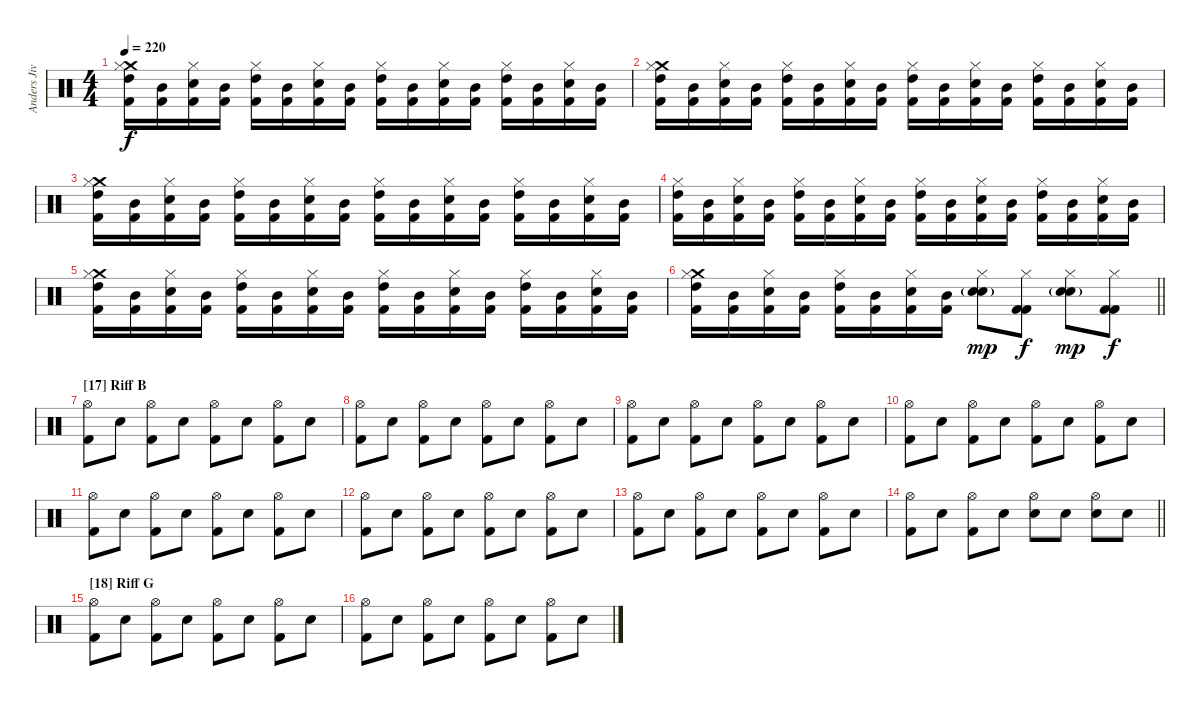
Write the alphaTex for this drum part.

\track ("Anders Jivarp" "Anders Jiv") {instrument percussion}
\staff {score}
\articulation defaults
\ts (4 4)
\tempo 220
\clef neutral
\ks c
("Crash medium (hit)" "Hi-Hat (closed)" "High Tom (hit)" "Kick (hit) 2").16{dy f} ("Mid Tom (hit)" "Kick (hit) 2").16 ("Hi-Hat (closed)" "Electric Snare (hit)" "Kick (hit) 2").16 ("Mid Tom (hit)" "Kick (hit) 2").16 ("Hi-Hat (closed)" "High Tom (hit)" "Kick (hit) 2").16 ("Mid Tom (hit)" "Kick (hit) 2").16 ("Hi-Hat (closed)" "Electric Snare (hit)" "Kick (hit) 2").16 ("Mid Tom (hit)" "Kick (hit) 2").16 ("Hi-Hat (closed)" "High Tom (hit)" "Kick (hit) 2").16 ("Mid Tom (hit)" "Kick (hit) 2").16 ("Hi-Hat (closed)" "Electric Snare (hit)" "Kick (hit) 2").16 ("Mid Tom (hit)" "Kick (hit) 2").16 ("Hi-Hat (closed)" "High Tom (hit)" "Kick (hit) 2").16 ("Mid Tom (hit)" "Kick (hit) 2").16 ("Hi-Hat (closed)" "Electric Snare (hit)" "Kick (hit) 2").16 ("Mid Tom (hit)" "Kick (hit) 2").16 |
("Crash medium (hit)" "Hi-Hat (closed)" "High Tom (hit)" "Kick (hit) 2").16 ("Mid Tom (hit)" "Kick (hit) 2").16 ("Hi-Hat (closed)" "Electric Snare (hit)" "Kick (hit) 2").16 ("Mid Tom (hit)" "Kick (hit) 2").16 ("Hi-Hat (closed)" "High Tom (hit)" "Kick (hit) 2").16 ("Mid Tom (hit)" "Kick (hit) 2").16 ("Hi-Hat (closed)" "Electric Snare (hit)" "Kick (hit) 2").16 ("Mid Tom (hit)" "Kick (hit) 2").16 ("Hi-Hat (closed)" "High Tom (hit)" "Kick (hit) 2").16 ("Mid Tom (hit)" "Kick (hit) 2").16 ("Hi-Hat (closed)" "Electric Snare (hit)" "Kick (hit) 2").16 ("Mid Tom (hit)" "Kick (hit) 2").16 ("Hi-Hat (closed)" "High Tom (hit)" "Kick (hit) 2").16 ("Mid Tom (hit)" "Kick (hit) 2").16 ("Hi-Hat (closed)" "Electric Snare (hit)" "Kick (hit) 2").16 ("Mid Tom (hit)" "Kick (hit) 2").16 |
("Crash medium (hit)" "Hi-Hat (closed)" "High Tom (hit)" "Kick (hit) 2").16 ("Mid Tom (hit)" "Kick (hit) 2").16 ("Hi-Hat (closed)" "Electric Snare (hit)" "Kick (hit) 2").16 ("Mid Tom (hit)" "Kick (hit) 2").16 ("Hi-Hat (closed)" "High Tom (hit)" "Kick (hit) 2").16 ("Mid Tom (hit)" "Kick (hit) 2").16 ("Hi-Hat (closed)" "Electric Snare (hit)" "Kick (hit) 2").16 ("Mid Tom (hit)" "Kick (hit) 2").16 ("Hi-Hat (closed)" "High Tom (hit)" "Kick (hit) 2").16 ("Mid Tom (hit)" "Kick (hit) 2").16 ("Hi-Hat (closed)" "Electric Snare (hit)" "Kick (hit) 2").16 ("Mid Tom (hit)" "Kick (hit) 2").16 ("Hi-Hat (closed)" "High Tom (hit)" "Kick (hit) 2").16 ("Mid Tom (hit)" "Kick (hit) 2").16 ("Hi-Hat (closed)" "Electric Snare (hit)" "Kick (hit) 2").16 ("Mid Tom (hit)" "Kick (hit) 2").16 |
("Hi-Hat (closed)" "High Tom (hit)" "Kick (hit) 2").16 ("Mid Tom (hit)" "Kick (hit) 2").16 ("Hi-Hat (closed)" "Electric Snare (hit)" "Kick (hit) 2").16 ("Mid Tom (hit)" "Kick (hit) 2").16 ("Hi-Hat (closed)" "High Tom (hit)" "Kick (hit) 2").16 ("Mid Tom (hit)" "Kick (hit) 2").16 ("Hi-Hat (closed)" "Electric Snare (hit)" "Kick (hit) 2").16 ("Mid Tom (hit)" "Kick (hit) 2").16 ("Hi-Hat (closed)" "High Tom (hit)" "Kick (hit) 2").16 ("Mid Tom (hit)" "Kick (hit) 2").16 ("Hi-Hat (closed)" "Electric Snare (hit)" "Kick (hit) 2").16 ("Mid Tom (hit)" "Kick (hit) 2").16 ("Hi-Hat (closed)" "High Tom (hit)" "Kick (hit) 2").16 ("Mid Tom (hit)" "Kick (hit) 2").16 ("Hi-Hat (closed)" "Electric Snare (hit)" "Kick (hit) 2").16 ("Mid Tom (hit)" "Kick (hit) 2").16 |
("Crash medium (hit)" "Hi-Hat (closed)" "High Tom (hit)" "Kick (hit) 2").16 ("Mid Tom (hit)" "Kick (hit) 2").16 ("Hi-Hat (closed)" "Electric Snare (hit)" "Kick (hit) 2").16 ("Mid Tom (hit)" "Kick (hit) 2").16 ("Hi-Hat (closed)" "High Tom (hit)" "Kick (hit) 2").16 ("Mid Tom (hit)" "Kick (hit) 2").16 ("Hi-Hat (closed)" "Electric Snare (hit)" "Kick (hit) 2").16 ("Mid Tom (hit)" "Kick (hit) 2").16 ("Hi-Hat (closed)" "High Tom (hit)" "Kick (hit) 2").16 ("Mid Tom (hit)" "Kick (hit) 2").16 ("Hi-Hat (closed)" "Electric Snare (hit)" "Kick (hit) 2").16 ("Mid Tom (hit)" "Kick (hit) 2").16 ("Hi-Hat (closed)" "High Tom (hit)" "Kick (hit) 2").16 ("Mid Tom (hit)" "Kick (hit) 2").16 ("Hi-Hat (closed)" "Electric Snare (hit)" "Kick (hit) 2").16 ("Mid Tom (hit)" "Kick (hit) 2").16 |
\barLineRight lightlight
("Crash medium (hit)" "Hi-Hat (closed)" "High Tom (hit)" "Kick (hit) 2").16 ("Mid Tom (hit)" "Kick (hit) 2").16 ("Hi-Hat (closed)" "Electric Snare (hit)" "Kick (hit) 2").16 ("Mid Tom (hit)" "Kick (hit) 2").16 ("Hi-Hat (closed)" "High Tom (hit)" "Kick (hit) 2").16 ("Mid Tom (hit)" "Kick (hit) 2").16 ("Hi-Hat (closed)" "Electric Snare (hit)" "Kick (hit) 2").16 ("Mid Tom (hit)" "Kick (hit) 2").16 ("Hi-Hat (closed)" "Electric Snare (hit)"{g} "Snare (hit) 2").8{dy mp} ("Hi-Hat (closed)" "Kick (hit) 2" "Kick (hit) 2").8{dy f} ("Hi-Hat (closed)" "Electric Snare (hit)"{g} "Snare (hit) 2").8{dy mp} ("Hi-Hat (closed)" "Kick (hit) 2" "Kick (hit) 2").8{dy f} |
\section ("" "[17] Riff B")
("Hi-Hat (open)" "Kick (hit) 2").8 "Snare (hit) 2".8 ("Hi-Hat (open)" "Kick (hit) 2").8 "Snare (hit) 2".8 ("Hi-Hat (open)" "Kick (hit) 2").8 "Snare (hit) 2".8 ("Hi-Hat (open)" "Kick (hit) 2").8 "Snare (hit) 2".8 |
("Hi-Hat (open)" "Kick (hit) 2").8 "Snare (hit) 2".8 ("Hi-Hat (open)" "Kick (hit) 2").8 "Snare (hit) 2".8 ("Hi-Hat (open)" "Kick (hit) 2").8 "Snare (hit) 2".8 ("Hi-Hat (open)" "Kick (hit) 2").8 "Snare (hit) 2".8 |
("Hi-Hat (open)" "Kick (hit) 2").8 "Snare (hit) 2".8 ("Hi-Hat (open)" "Kick (hit) 2").8 "Snare (hit) 2".8 ("Hi-Hat (open)" "Kick (hit) 2").8 "Snare (hit) 2".8 ("Hi-Hat (open)" "Kick (hit) 2").8 "Snare (hit) 2".8 |
("Hi-Hat (open)" "Kick (hit) 2").8 "Snare (hit) 2".8 ("Hi-Hat (open)" "Kick (hit) 2").8 "Snare (hit) 2".8 ("Hi-Hat (open)" "Kick (hit) 2").8 "Snare (hit) 2".8 ("Hi-Hat (open)" "Kick (hit) 2").8 "Snare (hit) 2".8 |
("Hi-Hat (open)" "Kick (hit) 2").8 "Snare (hit) 2".8 ("Hi-Hat (open)" "Kick (hit) 2").8 "Snare (hit) 2".8 ("Hi-Hat (open)" "Kick (hit) 2").8 "Snare (hit) 2".8 ("Hi-Hat (open)" "Kick (hit) 2").8 "Snare (hit) 2".8 |
("Hi-Hat (open)" "Kick (hit) 2").8 "Snare (hit) 2".8 ("Hi-Hat (open)" "Kick (hit) 2").8 "Snare (hit) 2".8 ("Hi-Hat (open)" "Kick (hit) 2").8 "Snare (hit) 2".8 ("Hi-Hat (open)" "Kick (hit) 2").8 "Snare (hit) 2".8 |
("Hi-Hat (open)" "Kick (hit) 2").8 "Snare (hit) 2".8 ("Hi-Hat (open)" "Kick (hit) 2").8 "Snare (hit) 2".8 ("Hi-Hat (open)" "Kick (hit) 2").8 "Snare (hit) 2".8 ("Hi-Hat (open)" "Kick (hit) 2").8 "Snare (hit) 2".8 |
\barLineRight lightlight
("Hi-Hat (open)" "Kick (hit) 2").8 "Snare (hit) 2".8 ("Hi-Hat (open)" "Kick (hit) 2").8 "Snare (hit) 2".8 ("Hi-Hat (open)" "Electric Snare (hit)").8 "Electric Snare (hit)".8 ("Hi-Hat (open)" "Electric Snare (hit)").8 "Electric Snare (hit)".8 |
\section ("" "[18] Riff G")
("Hi-Hat (open)" "Kick (hit) 2").8 "Snare (hit) 2".8 ("Hi-Hat (open)" "Kick (hit) 2").8 "Snare (hit) 2".8 ("Hi-Hat (open)" "Kick (hit) 2").8 "Snare (hit) 2".8 ("Hi-Hat (open)" "Kick (hit) 2").8 "Snare (hit) 2".8 |
("Hi-Hat (open)" "Kick (hit) 2").8 "Snare (hit) 2".8 ("Hi-Hat (open)" "Kick (hit) 2").8 "Snare (hit) 2".8 ("Hi-Hat (open)" "Kick (hit) 2").8 "Snare (hit) 2".8 ("Hi-Hat (open)" "Kick (hit) 2").8 "Snare (hit) 2".8
